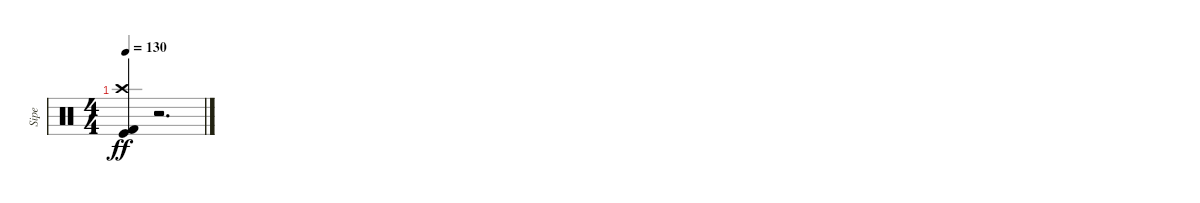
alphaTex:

\track ("Sipe" "Sipe") {instrument percussion}
\staff {score}
\articulation defaults
\ts (4 4)
\tempo 130
\clef neutral
\ks c
("Kick (hit)" "Crash high (hit)" "Kick (hit) 2").4{dy ff} r.2{d}
